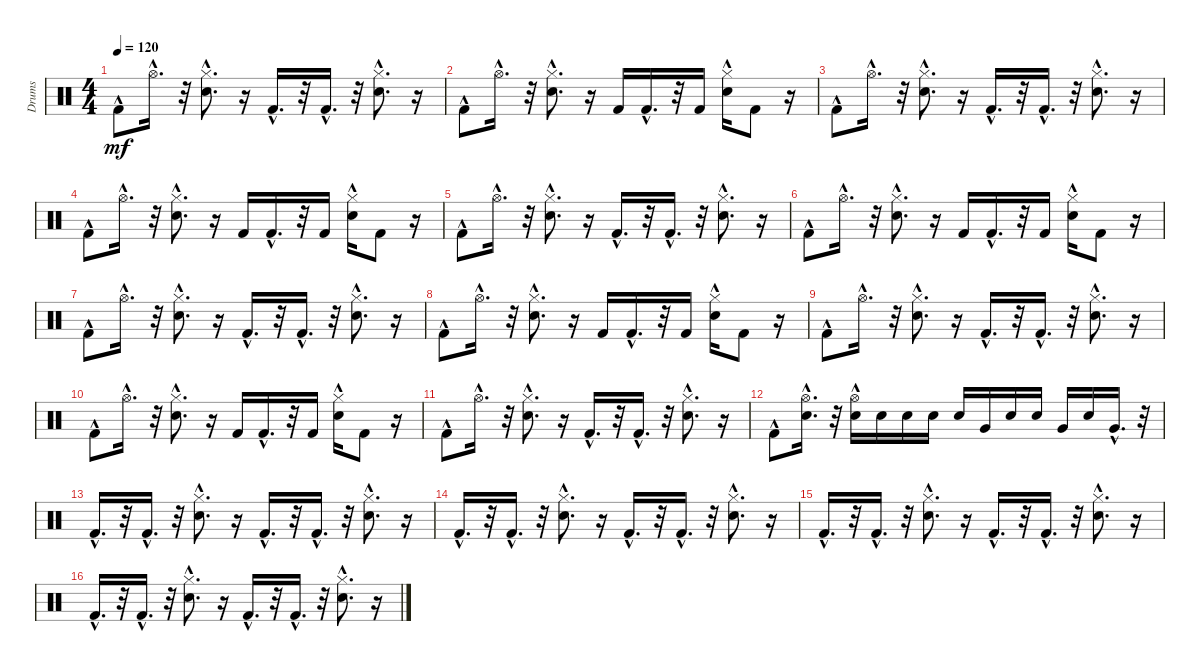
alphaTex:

\track ("Drums" "Drums") {instrument percussion}
\staff {score}
\articulation defaults
\ts (4 4)
\tempo 120
\clef neutral
\ks c "Kick (hit) 2"{hac}.8{dy mf} "Hi-Hat (open)"{hac}.16{d}
r.32 ("Snare (hit) 2"{hac} "Hi-Hat (closed)"{hac}).8{d} r.16 "Kick (hit) 2"{hac}.16{d} r.32 "Kick (hit) 2"{hac}.16{d} r.32 ("Hi-Hat (closed)"{hac} "Snare (hit) 2"{hac}).8{d} r.16 |
"Kick (hit) 2"{hac}.8 "Hi-Hat (open)"{hac}.16{d} r.32 ("Hi-Hat (closed)"{hac} "Snare (hit) 2"{hac}).8{d} r.16 "Kick (hit) 2".16 "Kick (hit) 2"{hac}.16{d} r.32 "Kick (hit) 2".16 ("Hi-Hat (closed)"{hac} "Snare (hit) 2"{hac}).16 "Kick (hit) 2".8 r.16 |
"Kick (hit) 2"{hac}.8 "Hi-Hat (open)"{hac}.16{d} r.32 ("Snare (hit) 2"{hac} "Hi-Hat (closed)"{hac}).8{d} r.16 "Kick (hit) 2"{hac}.16{d} r.32 "Kick (hit) 2"{hac}.16{d} r.32 ("Hi-Hat (closed)"{hac} "Snare (hit) 2"{hac}).8{d} r.16 |
"Kick (hit) 2"{hac}.8 "Hi-Hat (open)"{hac}.16{d} r.32 ("Hi-Hat (closed)"{hac} "Snare (hit) 2"{hac}).8{d} r.16 "Kick (hit) 2".16 "Kick (hit) 2"{hac}.16{d} r.32 "Kick (hit) 2".16 ("Hi-Hat (closed)"{hac} "Snare (hit) 2"{hac}).16 "Kick (hit) 2".8 r.16 |
"Kick (hit) 2"{hac}.8 "Hi-Hat (open)"{hac}.16{d} r.32 ("Hi-Hat (closed)"{hac} "Snare (hit) 2"{hac}).8{d} r.16 "Kick (hit) 2"{hac}.16{d} r.32 "Kick (hit) 2"{hac}.16{d} r.32 ("Hi-Hat (closed)"{hac} "Snare (hit) 2"{hac}).8{d} r.16 |
"Kick (hit) 2"{hac}.8 "Hi-Hat (open)"{hac}.16{d} r.32 ("Hi-Hat (closed)"{hac} "Snare (hit) 2"{hac}).8{d} r.16 "Kick (hit) 2".16 "Kick (hit) 2"{hac}.16{d} r.32 "Kick (hit) 2".16 ("Hi-Hat (closed)"{hac} "Snare (hit) 2"{hac}).16 "Kick (hit) 2".8 r.16 |
"Kick (hit) 2"{hac}.8 "Hi-Hat (open)"{hac}.16{d} r.32 ("Snare (hit) 2"{hac} "Hi-Hat (closed)"{hac}).8{d} r.16 "Kick (hit) 2"{hac}.16{d} r.32 "Kick (hit) 2"{hac}.16{d} r.32 ("Snare (hit) 2"{hac} "Hi-Hat (closed)"{hac}).8{d} r.16 |
"Kick (hit) 2"{hac}.8 "Hi-Hat (open)"{hac}.16{d} r.32 ("Snare (hit) 2"{hac} "Hi-Hat (closed)"{hac}).8{d} r.16 "Kick (hit) 2".16 "Kick (hit) 2"{hac}.16{d} r.32 "Kick (hit) 2".16 ("Snare (hit) 2"{hac} "Hi-Hat (closed)"{hac}).16 "Kick (hit) 2".8 r.16 |
"Kick (hit) 2"{hac}.8 "Hi-Hat (open)"{hac}.16{d} r.32 ("Snare (hit) 2"{hac} "Hi-Hat (closed)"{hac}).8{d} r.16 "Kick (hit) 2"{hac}.16{d} r.32 "Kick (hit) 2"{hac}.16{d} r.32 ("Hi-Hat (closed)"{hac} "Snare (hit) 2"{hac}).8{d} r.16 |
"Kick (hit) 2"{hac}.8 "Hi-Hat (open)"{hac}.16{d} r.32 ("Hi-Hat (closed)"{hac} "Snare (hit) 2"{hac}).8{d} r.16 "Kick (hit) 2".16 "Kick (hit) 2"{hac}.16{d} r.32 "Kick (hit) 2".16 ("Snare (hit) 2"{hac} "Hi-Hat (closed)"{hac}).16 "Kick (hit) 2".8 r.16 |
"Kick (hit) 2"{hac}.8 "Hi-Hat (open)"{hac}.16{d} r.32 ("Snare (hit) 2"{hac} "Hi-Hat (closed)"{hac}).8{d} r.16 "Kick (hit) 2"{hac}.16{d} r.32 "Kick (hit) 2"{hac}.16{d} r.32 ("Snare (hit) 2"{hac} "Hi-Hat (closed)"{hac}).8{d} r.16 |
"Kick (hit) 2"{hac}.8 ("Snare (hit) 2"{hac} "Hi-Hat (open)"{hac}).16{d} r.32 ("Hi-Hat (open)"{hac} "Snare (hit) 2").16 "Snare (hit) 2".16 "Snare (hit) 2".16 "Snare (hit) 2".16 "Snare (hit) 2".16 "Very Low Tom (hit)".16 "Snare (hit) 2".16 "Snare (hit) 2".16 "Very Low Tom (hit)".16 "Snare (hit) 2".16 "Very Low Tom (hit)"{hac}.16{d} r.32 |
"Kick (hit) 2"{hac}.16{d} r.32 "Kick (hit) 2"{hac}.16{d} r.32 ("Snare (hit) 2"{hac} "Hi-Hat (closed)"{hac}).8{d} r.16 "Kick (hit) 2"{hac}.16{d} r.32 "Kick (hit) 2"{hac}.16{d} r.32 ("Hi-Hat (closed)"{hac} "Snare (hit) 2"{hac}).8{d} r.16 |
"Kick (hit) 2"{hac}.16{d} r.32 "Kick (hit) 2"{hac}.16{d} r.32 ("Hi-Hat (closed)"{hac} "Snare (hit) 2"{hac}).8{d} r.16 "Kick (hit) 2"{hac}.16{d} r.32 "Kick (hit) 2"{hac}.16{d} r.32 ("Snare (hit) 2"{hac} "Hi-Hat (closed)"{hac}).8{d} r.16 |
"Kick (hit) 2"{hac}.16{d} r.32 "Kick (hit) 2"{hac}.16{d} r.32 ("Snare (hit) 2"{hac} "Hi-Hat (closed)"{hac}).8{d} r.16 "Kick (hit) 2"{hac}.16{d} r.32 "Kick (hit) 2"{hac}.16{d} r.32 ("Hi-Hat (closed)"{hac} "Snare (hit) 2"{hac}).8{d} r.16 |
"Kick (hit) 2"{hac}.16{d} r.32 "Kick (hit) 2"{hac}.16{d} r.32 ("Hi-Hat (closed)"{hac} "Snare (hit) 2"{hac}).8{d} r.16 "Kick (hit) 2"{hac}.16{d} r.32 "Kick (hit) 2"{hac}.16{d} r.32 ("Hi-Hat (closed)"{hac} "Snare (hit) 2"{hac}).8{d} r.16
